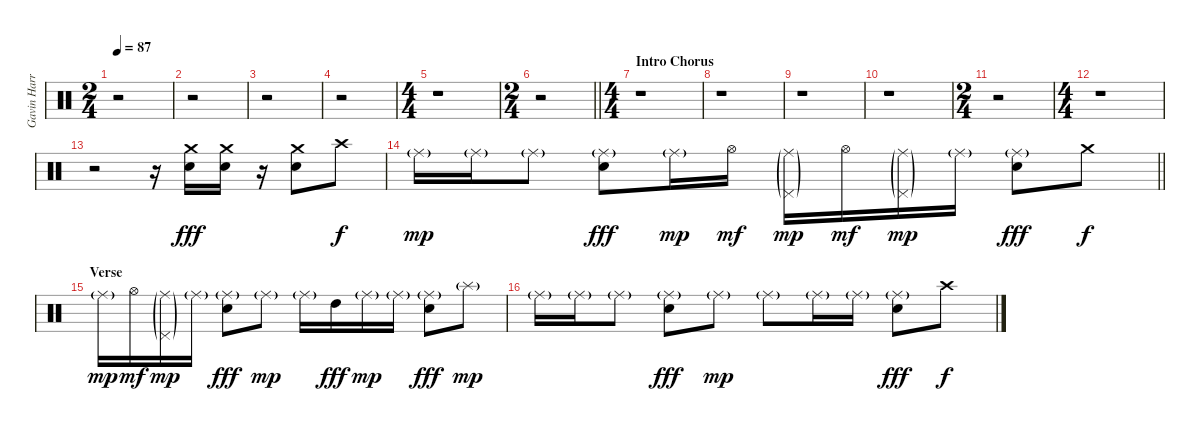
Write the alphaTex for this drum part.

\track ("Gavin Harrison Drums" "Gavin Harr") {instrument percussion}
\staff {score}
\articulation defaults
\ts (2 4)
\tempo 87
\clef neutral
\ks aminor
r.2{dy fff} |
r.2 |
r.2 |
r.2 |
\ts (4 4)
r.1 |
\ts (2 4)
\barLineRight lightlight
r.2 |
\ts (4 4)
\section ("" "Intro Chorus")
r.1 |
r.1 |
r.1 |
r.1 |
\ts (2 4)
r.2 |
\ts (4 4)
r.1 |
r.2 r.16 ("Crash medium (hit)" "Electric Snare (hit)").16 ("Crash medium (hit)" "Electric Snare (hit)").16 r.16 ("Crash medium (hit)" "Electric Snare (hit)").8 "Crash high (hit)".8{dy f} |
\barLineRight lightlight "Ride (middle)"{g}.16{dy mp} "Ride (middle)"{g}.16 "Ride (middle)"{g}.8
("Ride (middle)"{g} "Electric Snare (hit)").8{dy fff} "Ride (middle)"{g}.16{dy mp} "Hi-Hat (open)".16{dy mf} ("Ride (middle)"{g} "Pedal Hi-Hat (hit)"{g}).16{dy mp} "Hi-Hat (open)".16{dy mf} ("Ride (middle)"{g} "Pedal Hi-Hat (hit)"{g}).16{dy mp} "Ride (middle)"{g}.16 ("Ride (middle)"{g} "Electric Snare (hit)").8{dy fff} "Crash medium (hit)".8{dy f} |
\section ("" "Verse")
"Ride (middle)"{g}.16{dy mp} "Hi-Hat (open)".16{dy mf} ("Ride (middle)"{g} "Pedal Hi-Hat (hit)"{g}).16{dy mp} "Ride (middle)"{g}.16 ("Ride (middle)"{g} "Electric Snare (hit)").8{dy fff} "Ride (middle)"{g}.8{dy mp} "Ride (middle)"{g}.16 "High Tom (hit)".16{dy fff} "Ride (middle)"{g}.16{dy mp} "Ride (middle)"{g}.16 ("Ride (middle)"{g} "Electric Snare (hit)").8{dy fff} "Splash (hit)"{g}.8{dy mp} |
"Ride (middle)"{g}.16 "Ride (middle)"{g}.16 "Ride (middle)"{g}.8 ("Ride (middle)"{g} "Electric Snare (hit)").8{dy fff} "Ride (middle)"{g}.8{dy mp} "Ride (middle)"{g}.8 "Ride (middle)"{g}.16 "Ride (middle)"{g}.16 ("Ride (middle)"{g} "Electric Snare (hit)").8{dy fff} "Crash high (hit)".8{dy f}
